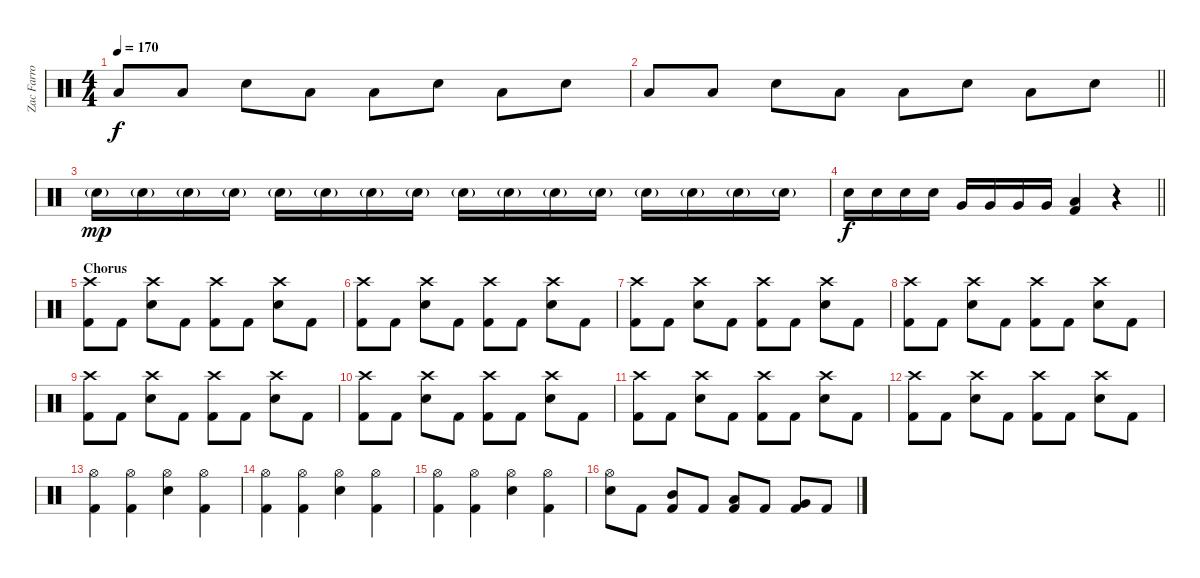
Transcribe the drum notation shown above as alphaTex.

\track ("Zac Farro (Percussion)" "Zac Farro ") {instrument percussion}
\staff {score}
\articulation defaults
\ts (4 4)
\tempo 170
\clef neutral
\ks c "Low Floor Tom (hit)".8{dy f} "Low Floor Tom (hit)".8 "Electric Snare (hit)".8 "Low Floor Tom (hit)".8 "Low Floor Tom (hit)".8 "Electric Snare (hit)".8 "Low Floor Tom (hit)".8 "Electric Snare (hit)".8
|
\barLineRight lightlight "Low Floor Tom (hit)".8 "Low Floor Tom (hit)".8 "Electric Snare (hit)".8 "Low Floor Tom (hit)".8 "Low Floor Tom (hit)".8 "Electric Snare (hit)".8 "Low Floor Tom (hit)".8 "Electric Snare (hit)".8
|
\section ("" "")
"Electric Snare (hit)"{g}.16{dy mp} "Electric Snare (hit)"{g}.16 "Electric Snare (hit)"{g}.16 "Electric Snare (hit)"{g}.16 "Electric Snare (hit)"{g}.16 "Electric Snare (hit)"{g}.16 "Electric Snare (hit)"{g}.16 "Electric Snare (hit)"{g}.16 "Electric Snare (hit)"{g}.16 "Electric Snare (hit)"{g}.16 "Electric Snare (hit)"{g}.16 "Electric Snare (hit)"{g}.16 "Electric Snare (hit)"{g}.16 "Electric Snare (hit)"{g}.16 "Electric Snare (hit)"{g}.16 "Electric Snare (hit)"{g}.16 |
\barLineRight lightlight "Electric Snare (hit)".16{dy f} "Electric Snare (hit)".16 "Electric Snare (hit)".16 "Electric Snare (hit)".16 "Very Low Tom (hit)".16 "Very Low Tom (hit)".16 "Very Low Tom (hit)".16 "Very Low Tom (hit)".16
("Low Floor Tom (hit)" "Kick (hit) 2").4 r.4 |
\section ("" "Chorus")
("Crash high (hit)" "Kick (hit) 2").8 "Kick (hit) 2".8 ("Crash high (hit)" "Electric Snare (hit)").8 "Kick (hit) 2".8 ("Crash high (hit)" "Kick (hit) 2").8 "Kick (hit) 2".8 ("Crash high (hit)" "Electric Snare (hit)").8 "Kick (hit) 2".8 |
("Crash high (hit)" "Kick (hit) 2").8 "Kick (hit) 2".8 ("Crash high (hit)" "Electric Snare (hit)").8 "Kick (hit) 2".8 ("Crash high (hit)" "Kick (hit) 2").8 "Kick (hit) 2".8 ("Crash high (hit)" "Electric Snare (hit)").8 "Kick (hit) 2".8 |
("Crash high (hit)" "Kick (hit) 2").8 "Kick (hit) 2".8 ("Crash high (hit)" "Electric Snare (hit)").8 "Kick (hit) 2".8 ("Crash high (hit)" "Kick (hit) 2").8 "Kick (hit) 2".8 ("Crash high (hit)" "Electric Snare (hit)").8 "Kick (hit) 2".8 |
("Crash high (hit)" "Kick (hit) 2").8 "Kick (hit) 2".8 ("Crash high (hit)" "Electric Snare (hit)").8 "Kick (hit) 2".8 ("Crash high (hit)" "Kick (hit) 2").8 "Kick (hit) 2".8 ("Crash high (hit)" "Electric Snare (hit)").8 "Kick (hit) 2".8 |
("Crash high (hit)" "Kick (hit) 2").8 "Kick (hit) 2".8 ("Crash high (hit)" "Electric Snare (hit)").8 "Kick (hit) 2".8 ("Crash high (hit)" "Kick (hit) 2").8 "Kick (hit) 2".8 ("Crash high (hit)" "Electric Snare (hit)").8 "Kick (hit) 2".8 |
("Crash high (hit)" "Kick (hit) 2").8 "Kick (hit) 2".8 ("Crash high (hit)" "Electric Snare (hit)").8 "Kick (hit) 2".8 ("Crash high (hit)" "Kick (hit) 2").8 "Kick (hit) 2".8 ("Crash high (hit)" "Electric Snare (hit)").8 "Kick (hit) 2".8 |
("Crash high (hit)" "Kick (hit) 2").8 "Kick (hit) 2".8 ("Crash high (hit)" "Electric Snare (hit)").8 "Kick (hit) 2".8 ("Crash high (hit)" "Kick (hit) 2").8 "Kick (hit) 2".8 ("Crash high (hit)" "Electric Snare (hit)").8 "Kick (hit) 2".8 |
("Crash high (hit)" "Kick (hit) 2").8 "Kick (hit) 2".8 ("Crash high (hit)" "Electric Snare (hit)").8 "Kick (hit) 2".8 ("Crash high (hit)" "Kick (hit) 2").8 "Kick (hit) 2".8 ("Crash high (hit)" "Electric Snare (hit)").8 "Kick (hit) 2".8 |
("Hi-Hat (open)" "Kick (hit) 2").4 ("Hi-Hat (open)" "Kick (hit) 2").4 ("Hi-Hat (open)" "Electric Snare (hit)").4 ("Hi-Hat (open)" "Kick (hit) 2").4 |
("Hi-Hat (open)" "Kick (hit) 2").4 ("Hi-Hat (open)" "Kick (hit) 2").4 ("Hi-Hat (open)" "Electric Snare (hit)").4 ("Hi-Hat (open)" "Kick (hit) 2").4 |
("Hi-Hat (open)" "Kick (hit) 2").4 ("Hi-Hat (open)" "Kick (hit) 2").4 ("Hi-Hat (open)" "Electric Snare (hit)").4 ("Hi-Hat (open)" "Kick (hit) 2").4 |
("Hi-Hat (open)" "Electric Snare (hit)").8 "Kick (hit) 2".8 ("Mid Tom (hit)" "Kick (hit) 2").8 "Kick (hit) 2".8 ("Low Tom (hit)" "Kick (hit) 2").8 "Kick (hit) 2".8 ("Very Low Tom (hit)" "Kick (hit) 2").8 "Kick (hit) 2".8
